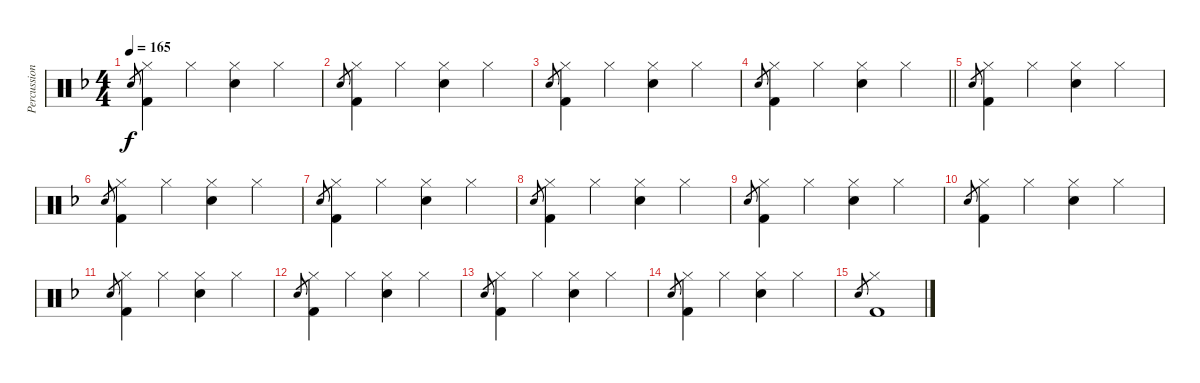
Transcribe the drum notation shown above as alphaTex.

\track ("Percussion [Nick Mason]" "Percussion") {instrument percussion}
\staff {score}
\articulation defaults
\ts (4 4)
\tempo 165
\clef neutral
\ks dminor "Snare (hit) 2".8{gr dy f}
("Hi-Hat (closed)" "Kick (hit) 2").4 "Hi-Hat (closed)".4 ("Hi-Hat (closed)" "Snare (hit) 2").4 "Hi-Hat (closed)".4 |
"Snare (hit) 2".8{gr} ("Hi-Hat (closed)" "Kick (hit) 2").4 "Hi-Hat (closed)".4 ("Hi-Hat (closed)" "Snare (hit) 2").4 "Hi-Hat (closed)".4 |
"Snare (hit) 2".8{gr} ("Hi-Hat (closed)" "Kick (hit) 2").4 "Hi-Hat (closed)".4 ("Hi-Hat (closed)" "Snare (hit) 2").4 "Hi-Hat (closed)".4 |
\barLineRight lightlight "Snare (hit) 2".8{gr}
("Hi-Hat (closed)" "Kick (hit) 2").4 "Hi-Hat (closed)".4 ("Hi-Hat (closed)" "Snare (hit) 2").4 "Hi-Hat (closed)".4 |
"Snare (hit) 2".8{gr} ("Hi-Hat (closed)" "Kick (hit) 2").4 "Hi-Hat (closed)".4 ("Hi-Hat (closed)" "Snare (hit) 2").4 "Hi-Hat (closed)".4 |
"Snare (hit) 2".8{gr} ("Hi-Hat (closed)" "Kick (hit) 2").4 "Hi-Hat (closed)".4 ("Hi-Hat (closed)" "Snare (hit) 2").4 "Hi-Hat (closed)".4 |
"Snare (hit) 2".8{gr} ("Hi-Hat (closed)" "Kick (hit) 2").4 "Hi-Hat (closed)".4 ("Hi-Hat (closed)" "Snare (hit) 2").4 "Hi-Hat (closed)".4 |
"Snare (hit) 2".8{gr} ("Hi-Hat (closed)" "Kick (hit) 2").4 "Hi-Hat (closed)".4 ("Hi-Hat (closed)" "Snare (hit) 2").4 "Hi-Hat (closed)".4 |
"Snare (hit) 2".8{gr} ("Hi-Hat (closed)" "Kick (hit) 2").4 "Hi-Hat (closed)".4 ("Hi-Hat (closed)" "Snare (hit) 2").4 "Hi-Hat (closed)".4 |
"Snare (hit) 2".8{gr} ("Hi-Hat (closed)" "Kick (hit) 2").4 "Hi-Hat (closed)".4 ("Hi-Hat (closed)" "Snare (hit) 2").4 "Hi-Hat (closed)".4 |
"Snare (hit) 2".8{gr} ("Hi-Hat (closed)" "Kick (hit) 2").4 "Hi-Hat (closed)".4 ("Hi-Hat (closed)" "Snare (hit) 2").4 "Hi-Hat (closed)".4 |
"Snare (hit) 2".8{gr} ("Hi-Hat (closed)" "Kick (hit) 2").4 "Hi-Hat (closed)".4 ("Hi-Hat (closed)" "Snare (hit) 2").4 "Hi-Hat (closed)".4 |
"Snare (hit) 2".8{gr} ("Hi-Hat (closed)" "Kick (hit) 2").4 "Hi-Hat (closed)".4 ("Hi-Hat (closed)" "Snare (hit) 2").4 "Hi-Hat (closed)".4 |
"Snare (hit) 2".8{gr} ("Hi-Hat (closed)" "Kick (hit) 2").4 "Hi-Hat (closed)".4 ("Hi-Hat (closed)" "Snare (hit) 2").4 "Hi-Hat (closed)".4 |
"Snare (hit) 2".8{gr} ("Hi-Hat (closed)" "Kick (hit) 2").1
